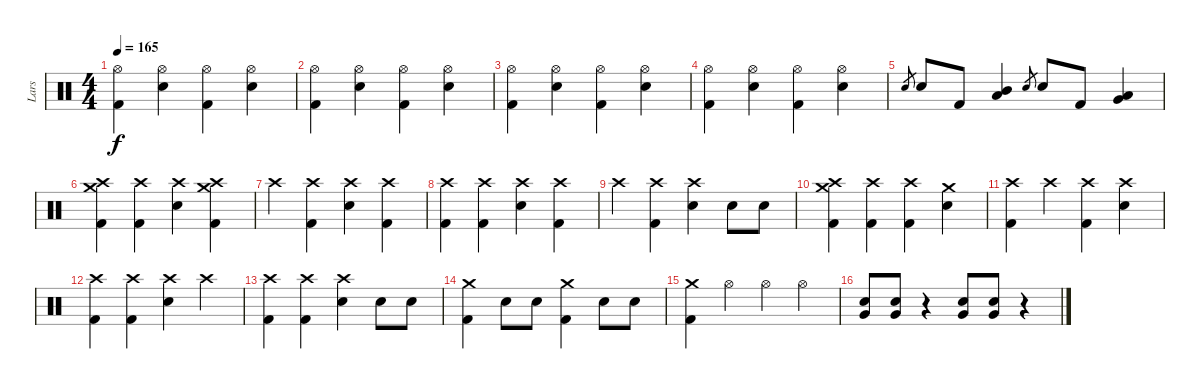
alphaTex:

\track ("Lars" "Lars") {instrument percussion}
\staff {score}
\articulation defaults
\ts (4 4)
\tempo 165
\clef neutral
\ks c
("Hi-Hat (open)" "Kick (hit) 2").4{dy f} ("Hi-Hat (open)" "Snare (hit) 2").4 ("Hi-Hat (open)" "Kick (hit) 2").4 ("Hi-Hat (open)" "Snare (hit) 2").4 |
("Hi-Hat (open)" "Kick (hit) 2").4 ("Hi-Hat (open)" "Snare (hit) 2").4 ("Hi-Hat (open)" "Kick (hit) 2").4 ("Hi-Hat (open)" "Snare (hit) 2").4 |
("Hi-Hat (open)" "Kick (hit) 2").4 ("Hi-Hat (open)" "Snare (hit) 2").4 ("Hi-Hat (open)" "Kick (hit) 2").4 ("Hi-Hat (open)" "Snare (hit) 2").4 |
("Hi-Hat (open)" "Kick (hit) 2").4 ("Hi-Hat (open)" "Snare (hit) 2").4 ("Hi-Hat (open)" "Kick (hit) 2").4 ("Hi-Hat (open)" "Snare (hit) 2").4 |
"Snare (hit) 2".8{gr} "Snare (hit) 2".8 "Kick (hit) 2".8 ("Mid Tom (hit)" "Low Tom (hit)").4 "Snare (hit) 2".8{gr} "Snare (hit) 2".8 "Kick (hit) 2".8 ("Low Tom (hit)" "Very Low Tom (hit)").4 |
("Crash medium (hit)" "Crash high (hit)" "Kick (hit) 2").4 ("Crash high (hit)" "Kick (hit) 2").4 ("Crash high (hit)" "Snare (hit) 2").4 ("Crash high (hit)" "Crash medium (hit)" "Kick (hit) 2").4 |
"Crash high (hit)".4 ("Crash high (hit)" "Kick (hit) 2").4 ("Crash high (hit)" "Snare (hit) 2").4 ("Crash high (hit)" "Kick (hit) 2").4 |
("Crash high (hit)" "Kick (hit) 2").4 ("Crash high (hit)" "Kick (hit) 2").4 ("Crash high (hit)" "Snare (hit) 2").4 ("Crash high (hit)" "Kick (hit) 2").4 |
"Crash high (hit)".4 ("Crash high (hit)" "Kick (hit) 2").4 ("Crash high (hit)" "Snare (hit) 2").4 "Snare (hit) 2".8 "Snare (hit) 2".8 |
("Crash medium (hit)" "Crash high (hit)" "Kick (hit) 2").4 ("Crash high (hit)" "Kick (hit) 2").4 ("Crash high (hit)" "Kick (hit) 2").4 ("Crash medium (hit)" "Snare (hit) 2").4 |
("Crash high (hit)" "Kick (hit) 2").4 "Crash high (hit)".4 ("Crash high (hit)" "Kick (hit) 2").4 ("Crash high (hit)" "Snare (hit) 2").4 |
("Crash high (hit)" "Kick (hit) 2").4 ("Crash high (hit)" "Kick (hit) 2").4 ("Crash high (hit)" "Snare (hit) 2").4 "Crash high (hit)".4 |
("Crash high (hit)" "Kick (hit) 2").4 ("Crash high (hit)" "Kick (hit) 2").4 ("Crash high (hit)" "Snare (hit) 2").4 "Snare (hit) 2".8 "Snare (hit) 2".8 |
("Crash medium (hit)" "Kick (hit) 2").4 "Snare (hit) 2".8 "Snare (hit) 2".8 ("Crash medium (hit)" "Kick (hit) 2").4 "Snare (hit) 2".8 "Snare (hit) 2".8 |
("Crash medium (hit)" "Kick (hit) 2").4 "Hi-Hat (open)".4 "Hi-Hat (open)".4 "Hi-Hat (open)".4 |
("Very Low Tom (hit)" "Snare (hit) 2").8 ("Very Low Tom (hit)" "Snare (hit) 2").8 r.4 ("Very Low Tom (hit)" "Snare (hit) 2").8 ("Very Low Tom (hit)" "Snare (hit) 2").8 r.4
